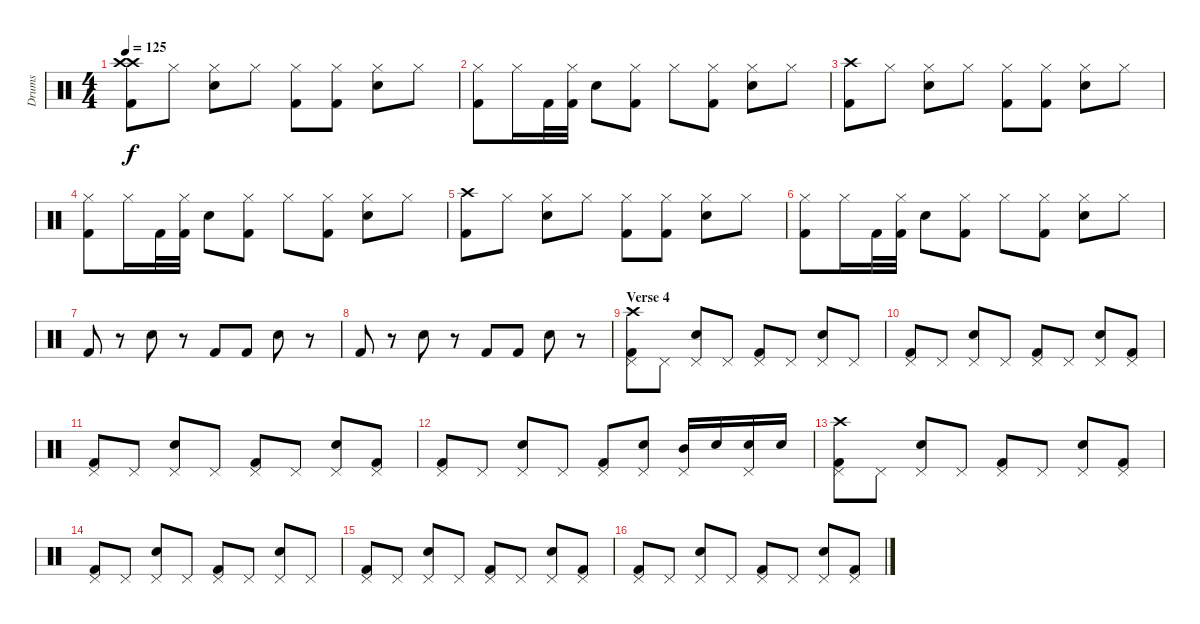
\track ("Drums" "Drums") {instrument percussion}
\staff {score}
\articulation defaults
\ts (4 4)
\tempo 125
\clef neutral
\ks c
("Crash high (hit)" "Crash high (hit)" "Kick (hit) 2").8{dy f} "Hi-Hat (closed)".8 ("Hi-Hat (closed)" "Electric Snare (hit)").8 "Hi-Hat (closed)".8 ("Hi-Hat (closed)" "Kick (hit) 2").8 ("Hi-Hat (closed)" "Kick (hit) 2").8 ("Hi-Hat (closed)" "Electric Snare (hit)").8 "Hi-Hat (closed)".8 |
("Hi-Hat (closed)" "Kick (hit) 2").8 "Hi-Hat (closed)".16 "Kick (hit) 2".32 ("Hi-Hat (closed)" "Kick (hit) 2").32 "Electric Snare (hit)".8 ("Hi-Hat (closed)" "Kick (hit) 2").8 "Hi-Hat (closed)".8 ("Hi-Hat (closed)" "Kick (hit) 2").8 ("Hi-Hat (closed)" "Electric Snare (hit)").8 "Hi-Hat (closed)".8 |
("Crash high (hit)" "Kick (hit) 2").8 "Hi-Hat (closed)".8 ("Hi-Hat (closed)" "Electric Snare (hit)").8 "Hi-Hat (closed)".8 ("Hi-Hat (closed)" "Kick (hit) 2").8 ("Hi-Hat (closed)" "Kick (hit) 2").8 ("Hi-Hat (closed)" "Electric Snare (hit)").8 "Hi-Hat (closed)".8 |
("Hi-Hat (closed)" "Kick (hit) 2").8 "Hi-Hat (closed)".16 "Kick (hit) 2".32 ("Hi-Hat (closed)" "Kick (hit) 2").32 "Electric Snare (hit)".8 ("Hi-Hat (closed)" "Kick (hit) 2").8 "Hi-Hat (closed)".8 ("Hi-Hat (closed)" "Kick (hit) 2").8 ("Hi-Hat (closed)" "Electric Snare (hit)").8 "Hi-Hat (closed)".8 |
("Crash high (hit)" "Kick (hit) 2").8 "Hi-Hat (closed)".8 ("Hi-Hat (closed)" "Electric Snare (hit)").8 "Hi-Hat (closed)".8 ("Hi-Hat (closed)" "Kick (hit) 2").8 ("Hi-Hat (closed)" "Kick (hit) 2").8 ("Hi-Hat (closed)" "Electric Snare (hit)").8 "Hi-Hat (closed)".8 |
("Hi-Hat (closed)" "Kick (hit) 2").8 "Hi-Hat (closed)".16 "Kick (hit) 2".32 ("Hi-Hat (closed)" "Kick (hit) 2").32 "Electric Snare (hit)".8 ("Hi-Hat (closed)" "Kick (hit) 2").8 "Hi-Hat (closed)".8 ("Hi-Hat (closed)" "Kick (hit) 2").8 ("Hi-Hat (closed)" "Electric Snare (hit)").8 "Hi-Hat (closed)".8 |
"Kick (hit) 2".8 r.8 "Electric Snare (hit)".8 r.8 "Kick (hit) 2".8 "Kick (hit) 2".8 "Electric Snare (hit)".8 r.8 |
"Kick (hit) 2".8 r.8 "Electric Snare (hit)".8 r.8 "Kick (hit) 2".8 "Kick (hit) 2".8 "Electric Snare (hit)".8 r.8 |
\section ("" "Verse 4")
("Crash high (hit)" "Kick (hit) 2" "Pedal Hi-Hat (hit)").8 "Pedal Hi-Hat (hit)".8 ("Electric Snare (hit)" "Pedal Hi-Hat (hit)").8 "Pedal Hi-Hat (hit)".8 ("Kick (hit) 2" "Pedal Hi-Hat (hit)").8 "Pedal Hi-Hat (hit)".8 ("Electric Snare (hit)" "Pedal Hi-Hat (hit)").8 "Pedal Hi-Hat (hit)".8 |
("Kick (hit) 2" "Pedal Hi-Hat (hit)").8 "Pedal Hi-Hat (hit)".8 ("Electric Snare (hit)" "Pedal Hi-Hat (hit)").8 "Pedal Hi-Hat (hit)".8 ("Kick (hit) 2" "Pedal Hi-Hat (hit)").8 "Pedal Hi-Hat (hit)".8 ("Electric Snare (hit)" "Pedal Hi-Hat (hit)").8 ("Kick (hit) 2" "Pedal Hi-Hat (hit)").8 |
("Kick (hit) 2" "Pedal Hi-Hat (hit)").8 "Pedal Hi-Hat (hit)".8 ("Electric Snare (hit)" "Pedal Hi-Hat (hit)").8 "Pedal Hi-Hat (hit)".8 ("Kick (hit) 2" "Pedal Hi-Hat (hit)").8 "Pedal Hi-Hat (hit)".8 ("Electric Snare (hit)" "Pedal Hi-Hat (hit)").8 ("Kick (hit) 2" "Pedal Hi-Hat (hit)").8 |
("Kick (hit) 2" "Pedal Hi-Hat (hit)").8 "Pedal Hi-Hat (hit)".8 ("Electric Snare (hit)" "Pedal Hi-Hat (hit)").8 "Pedal Hi-Hat (hit)".8 ("Kick (hit) 2" "Pedal Hi-Hat (hit)").8 ("Electric Snare (hit)" "Pedal Hi-Hat (hit)").8 ("Mid Tom (hit)" "Pedal Hi-Hat (hit)").16 "Electric Snare (hit)".16 ("Electric Snare (hit)" "Pedal Hi-Hat (hit)").16 "Electric Snare (hit)".16 |
("Crash high (hit)" "Kick (hit) 2" "Pedal Hi-Hat (hit)").8 "Pedal Hi-Hat (hit)".8 ("Electric Snare (hit)" "Pedal Hi-Hat (hit)").8 "Pedal Hi-Hat (hit)".8 ("Kick (hit) 2" "Pedal Hi-Hat (hit)").8 "Pedal Hi-Hat (hit)".8 ("Electric Snare (hit)" "Pedal Hi-Hat (hit)").8 ("Kick (hit) 2" "Pedal Hi-Hat (hit)").8 |
("Kick (hit) 2" "Pedal Hi-Hat (hit)").8 "Pedal Hi-Hat (hit)".8 ("Electric Snare (hit)" "Pedal Hi-Hat (hit)").8 "Pedal Hi-Hat (hit)".8 ("Kick (hit) 2" "Pedal Hi-Hat (hit)").8 "Pedal Hi-Hat (hit)".8 ("Electric Snare (hit)" "Pedal Hi-Hat (hit)").8 "Pedal Hi-Hat (hit)".8 |
("Kick (hit) 2" "Pedal Hi-Hat (hit)").8 "Pedal Hi-Hat (hit)".8 ("Electric Snare (hit)" "Pedal Hi-Hat (hit)").8 "Pedal Hi-Hat (hit)".8 ("Kick (hit) 2" "Pedal Hi-Hat (hit)").8 "Pedal Hi-Hat (hit)".8 ("Electric Snare (hit)" "Pedal Hi-Hat (hit)").8 ("Kick (hit) 2" "Pedal Hi-Hat (hit)").8 |
("Kick (hit) 2" "Pedal Hi-Hat (hit)").8 "Pedal Hi-Hat (hit)".8 ("Electric Snare (hit)" "Pedal Hi-Hat (hit)").8 "Pedal Hi-Hat (hit)".8 ("Kick (hit) 2" "Pedal Hi-Hat (hit)").8 "Pedal Hi-Hat (hit)".8 ("Electric Snare (hit)" "Pedal Hi-Hat (hit)").8 ("Kick (hit) 2" "Pedal Hi-Hat (hit)").8
